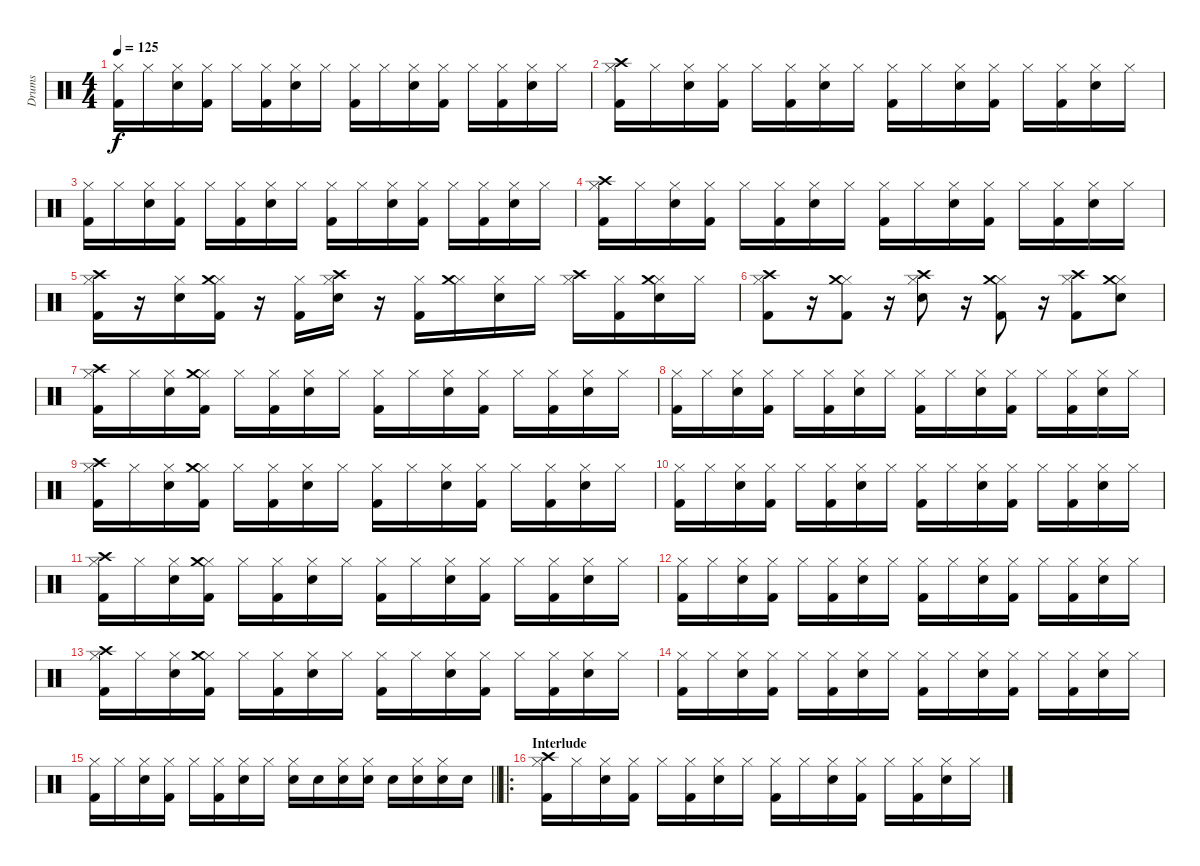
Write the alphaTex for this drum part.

\track ("Drums" "Drums") {instrument percussion}
\staff {score}
\articulation defaults
\ts (4 4)
\tempo 125
\clef neutral
\ks c
("Kick (hit) 2" "Hi-Hat (closed)").16{dy f} "Hi-Hat (closed)".16 ("Snare (hit) 2" "Hi-Hat (closed)").16 ("Kick (hit) 2" "Hi-Hat (closed)").16 "Hi-Hat (closed)".16 ("Kick (hit) 2" "Hi-Hat (closed)").16 ("Snare (hit) 2" "Hi-Hat (closed)").16 "Hi-Hat (closed)".16 ("Kick (hit) 2" "Hi-Hat (closed)").16 "Hi-Hat (closed)".16 ("Snare (hit) 2" "Hi-Hat (closed)").16 ("Kick (hit) 2" "Hi-Hat (closed)").16 "Hi-Hat (closed)".16 ("Kick (hit) 2" "Hi-Hat (closed)").16 ("Snare (hit) 2" "Hi-Hat (closed)").16 "Hi-Hat (closed)".16 |
("Kick (hit) 2" "Hi-Hat (closed)" "Crash high (hit)").16 "Hi-Hat (closed)".16 ("Snare (hit) 2" "Hi-Hat (closed)").16 ("Kick (hit) 2" "Hi-Hat (closed)").16 "Hi-Hat (closed)".16 ("Kick (hit) 2" "Hi-Hat (closed)").16 ("Snare (hit) 2" "Hi-Hat (closed)").16 "Hi-Hat (closed)".16 ("Kick (hit) 2" "Hi-Hat (closed)").16 "Hi-Hat (closed)".16 ("Snare (hit) 2" "Hi-Hat (closed)").16 ("Kick (hit) 2" "Hi-Hat (closed)").16 "Hi-Hat (closed)".16 ("Kick (hit) 2" "Hi-Hat (closed)").16 ("Snare (hit) 2" "Hi-Hat (closed)").16 "Hi-Hat (closed)".16 |
("Kick (hit) 2" "Hi-Hat (closed)").16 "Hi-Hat (closed)".16 ("Snare (hit) 2" "Hi-Hat (closed)").16 ("Kick (hit) 2" "Hi-Hat (closed)").16 "Hi-Hat (closed)".16 ("Kick (hit) 2" "Hi-Hat (closed)").16 ("Snare (hit) 2" "Hi-Hat (closed)").16 "Hi-Hat (closed)".16 ("Kick (hit) 2" "Hi-Hat (closed)").16 "Hi-Hat (closed)".16 ("Snare (hit) 2" "Hi-Hat (closed)").16 ("Kick (hit) 2" "Hi-Hat (closed)").16 "Hi-Hat (closed)".16 ("Kick (hit) 2" "Hi-Hat (closed)").16 ("Snare (hit) 2" "Hi-Hat (closed)").16 "Hi-Hat (closed)".16 |
("Kick (hit) 2" "Hi-Hat (closed)" "Crash high (hit)").16 "Hi-Hat (closed)".16 ("Snare (hit) 2" "Hi-Hat (closed)").16 ("Kick (hit) 2" "Hi-Hat (closed)").16 "Hi-Hat (closed)".16 ("Kick (hit) 2" "Hi-Hat (closed)").16 ("Snare (hit) 2" "Hi-Hat (closed)").16 "Hi-Hat (closed)".16 ("Kick (hit) 2" "Hi-Hat (closed)").16 "Hi-Hat (closed)".16 ("Snare (hit) 2" "Hi-Hat (closed)").16 ("Kick (hit) 2" "Hi-Hat (closed)").16 "Hi-Hat (closed)".16 ("Kick (hit) 2" "Hi-Hat (closed)").16 ("Snare (hit) 2" "Hi-Hat (closed)").16 "Hi-Hat (closed)".16 |
("Kick (hit) 2" "Hi-Hat (closed)" "Crash high (hit)").16 r.16 ("Snare (hit) 2" "Hi-Hat (closed)").16 ("Kick (hit) 2" "Hi-Hat (closed)" "Crash medium (hit)").16 r.16 ("Kick (hit) 2" "Hi-Hat (closed)").16 ("Snare (hit) 2" "Hi-Hat (closed)" "Crash high (hit)").16 r.16 ("Kick (hit) 2" "Hi-Hat (closed)").16 ("Hi-Hat (closed)" "Crash medium (hit)").16 ("Snare (hit) 2" "Hi-Hat (closed)").16 "Hi-Hat (closed)".16 ("Hi-Hat (closed)" "Crash high (hit)").16 ("Kick (hit) 2" "Hi-Hat (closed)").16 ("Snare (hit) 2" "Hi-Hat (closed)" "Crash medium (hit)").16 "Hi-Hat (closed)".16 |
("Kick (hit) 2" "Hi-Hat (closed)" "Crash high (hit)").8 r.16 ("Kick (hit) 2" "Hi-Hat (closed)" "Crash medium (hit)").8 r.16 ("Snare (hit) 2" "Hi-Hat (closed)" "Crash high (hit)").8 r.16 ("Kick (hit) 2" "Hi-Hat (closed)" "Crash medium (hit)").8 r.16 ("Kick (hit) 2" "Hi-Hat (closed)" "Crash high (hit)").8 ("Snare (hit) 2" "Hi-Hat (closed)" "Crash medium (hit)").8 |
("Kick (hit) 2" "Hi-Hat (closed)" "Crash high (hit)").16 "Hi-Hat (closed)".16 ("Snare (hit) 2" "Hi-Hat (closed)").16 ("Kick (hit) 2" "Hi-Hat (closed)" "Crash medium (hit)").16 "Hi-Hat (closed)".16 ("Kick (hit) 2" "Hi-Hat (closed)").16 ("Snare (hit) 2" "Hi-Hat (closed)").16 "Hi-Hat (closed)".16 ("Kick (hit) 2" "Hi-Hat (closed)").16 "Hi-Hat (closed)".16 ("Snare (hit) 2" "Hi-Hat (closed)").16 ("Kick (hit) 2" "Hi-Hat (closed)").16 "Hi-Hat (closed)".16 ("Kick (hit) 2" "Hi-Hat (closed)").16 ("Snare (hit) 2" "Hi-Hat (closed)").16 "Hi-Hat (closed)".16 |
("Kick (hit) 2" "Hi-Hat (closed)").16 "Hi-Hat (closed)".16 ("Snare (hit) 2" "Hi-Hat (closed)").16 ("Kick (hit) 2" "Hi-Hat (closed)").16 "Hi-Hat (closed)".16 ("Kick (hit) 2" "Hi-Hat (closed)").16 ("Snare (hit) 2" "Hi-Hat (closed)").16 "Hi-Hat (closed)".16 ("Kick (hit) 2" "Hi-Hat (closed)").16 "Hi-Hat (closed)".16 ("Snare (hit) 2" "Hi-Hat (closed)").16 ("Kick (hit) 2" "Hi-Hat (closed)").16 "Hi-Hat (closed)".16 ("Kick (hit) 2" "Hi-Hat (closed)").16 ("Snare (hit) 2" "Hi-Hat (closed)").16 "Hi-Hat (closed)".16 |
("Kick (hit) 2" "Hi-Hat (closed)" "Crash high (hit)").16 "Hi-Hat (closed)".16 ("Snare (hit) 2" "Hi-Hat (closed)").16 ("Kick (hit) 2" "Hi-Hat (closed)" "Crash medium (hit)").16 "Hi-Hat (closed)".16 ("Kick (hit) 2" "Hi-Hat (closed)").16 ("Snare (hit) 2" "Hi-Hat (closed)").16 "Hi-Hat (closed)".16 ("Kick (hit) 2" "Hi-Hat (closed)").16 "Hi-Hat (closed)".16 ("Snare (hit) 2" "Hi-Hat (closed)").16 ("Kick (hit) 2" "Hi-Hat (closed)").16 "Hi-Hat (closed)".16 ("Kick (hit) 2" "Hi-Hat (closed)").16 ("Snare (hit) 2" "Hi-Hat (closed)").16 "Hi-Hat (closed)".16 |
("Kick (hit) 2" "Hi-Hat (closed)").16 "Hi-Hat (closed)".16 ("Snare (hit) 2" "Hi-Hat (closed)").16 ("Kick (hit) 2" "Hi-Hat (closed)").16 "Hi-Hat (closed)".16 ("Kick (hit) 2" "Hi-Hat (closed)").16 ("Snare (hit) 2" "Hi-Hat (closed)").16 "Hi-Hat (closed)".16 ("Kick (hit) 2" "Hi-Hat (closed)").16 "Hi-Hat (closed)".16 ("Snare (hit) 2" "Hi-Hat (closed)").16 ("Kick (hit) 2" "Hi-Hat (closed)").16 "Hi-Hat (closed)".16 ("Kick (hit) 2" "Hi-Hat (closed)").16 ("Snare (hit) 2" "Hi-Hat (closed)").16 "Hi-Hat (closed)".16 |
("Kick (hit) 2" "Hi-Hat (closed)" "Crash high (hit)").16 "Hi-Hat (closed)".16 ("Snare (hit) 2" "Hi-Hat (closed)").16 ("Kick (hit) 2" "Hi-Hat (closed)" "Crash medium (hit)").16 "Hi-Hat (closed)".16 ("Kick (hit) 2" "Hi-Hat (closed)").16 ("Snare (hit) 2" "Hi-Hat (closed)").16 "Hi-Hat (closed)".16 ("Kick (hit) 2" "Hi-Hat (closed)").16 "Hi-Hat (closed)".16 ("Snare (hit) 2" "Hi-Hat (closed)").16 ("Kick (hit) 2" "Hi-Hat (closed)").16 "Hi-Hat (closed)".16 ("Kick (hit) 2" "Hi-Hat (closed)").16 ("Snare (hit) 2" "Hi-Hat (closed)").16 "Hi-Hat (closed)".16 |
("Kick (hit) 2" "Hi-Hat (closed)").16 "Hi-Hat (closed)".16 ("Snare (hit) 2" "Hi-Hat (closed)").16 ("Kick (hit) 2" "Hi-Hat (closed)").16 "Hi-Hat (closed)".16 ("Kick (hit) 2" "Hi-Hat (closed)").16 ("Snare (hit) 2" "Hi-Hat (closed)").16 "Hi-Hat (closed)".16 ("Kick (hit) 2" "Hi-Hat (closed)").16 "Hi-Hat (closed)".16 ("Snare (hit) 2" "Hi-Hat (closed)").16 ("Kick (hit) 2" "Hi-Hat (closed)").16 "Hi-Hat (closed)".16 ("Kick (hit) 2" "Hi-Hat (closed)").16 ("Snare (hit) 2" "Hi-Hat (closed)").16 "Hi-Hat (closed)".16 |
("Kick (hit) 2" "Hi-Hat (closed)" "Crash high (hit)").16 "Hi-Hat (closed)".16 ("Snare (hit) 2" "Hi-Hat (closed)").16 ("Kick (hit) 2" "Hi-Hat (closed)" "Crash medium (hit)").16 "Hi-Hat (closed)".16 ("Kick (hit) 2" "Hi-Hat (closed)").16 ("Snare (hit) 2" "Hi-Hat (closed)").16 "Hi-Hat (closed)".16 ("Kick (hit) 2" "Hi-Hat (closed)").16 "Hi-Hat (closed)".16 ("Snare (hit) 2" "Hi-Hat (closed)").16 ("Kick (hit) 2" "Hi-Hat (closed)").16 "Hi-Hat (closed)".16 ("Kick (hit) 2" "Hi-Hat (closed)").16 ("Snare (hit) 2" "Hi-Hat (closed)").16 "Hi-Hat (closed)".16 |
("Kick (hit) 2" "Hi-Hat (closed)").16 "Hi-Hat (closed)".16 ("Snare (hit) 2" "Hi-Hat (closed)").16 ("Kick (hit) 2" "Hi-Hat (closed)").16 "Hi-Hat (closed)".16 ("Kick (hit) 2" "Hi-Hat (closed)").16 ("Snare (hit) 2" "Hi-Hat (closed)").16 "Hi-Hat (closed)".16 ("Kick (hit) 2" "Hi-Hat (closed)").16 "Hi-Hat (closed)".16 ("Snare (hit) 2" "Hi-Hat (closed)").16 ("Kick (hit) 2" "Hi-Hat (closed)").16 "Hi-Hat (closed)".16 ("Kick (hit) 2" "Hi-Hat (closed)").16 ("Snare (hit) 2" "Hi-Hat (closed)").16 "Hi-Hat (closed)".16 |
\barLineRight lightlight
("Kick (hit) 2" "Hi-Hat (closed)").16 "Hi-Hat (closed)".16 ("Snare (hit) 2" "Hi-Hat (closed)").16 ("Kick (hit) 2" "Hi-Hat (closed)").16 "Hi-Hat (closed)".16 ("Kick (hit) 2" "Hi-Hat (closed)").16 ("Snare (hit) 2" "Hi-Hat (closed)").16 "Hi-Hat (closed)".16 ("Snare (hit) 2" "Hi-Hat (closed)").16 "Snare (hit) 2".16 ("Snare (hit) 2" "Hi-Hat (closed)").16 ("Snare (hit) 2" "Hi-Hat (closed)").16 "Snare (hit) 2".16 ("Snare (hit) 2" "Hi-Hat (closed)").16 ("Snare (hit) 2" "Hi-Hat (closed)").16 "Snare (hit) 2".16 |
\ro
\section ("" "Interlude")
("Kick (hit) 2" "Hi-Hat (closed)" "Crash high (hit)").16 "Hi-Hat (closed)".16 ("Snare (hit) 2" "Hi-Hat (closed)").16 ("Kick (hit) 2" "Hi-Hat (closed)").16 "Hi-Hat (closed)".16 ("Kick (hit) 2" "Hi-Hat (closed)").16 ("Snare (hit) 2" "Hi-Hat (closed)").16 "Hi-Hat (closed)".16 ("Kick (hit) 2" "Hi-Hat (closed)").16 "Hi-Hat (closed)".16 ("Snare (hit) 2" "Hi-Hat (closed)").16 ("Kick (hit) 2" "Hi-Hat (closed)").16 "Hi-Hat (closed)".16 ("Kick (hit) 2" "Hi-Hat (closed)").16 ("Snare (hit) 2" "Hi-Hat (closed)").16 "Hi-Hat (closed)".16
